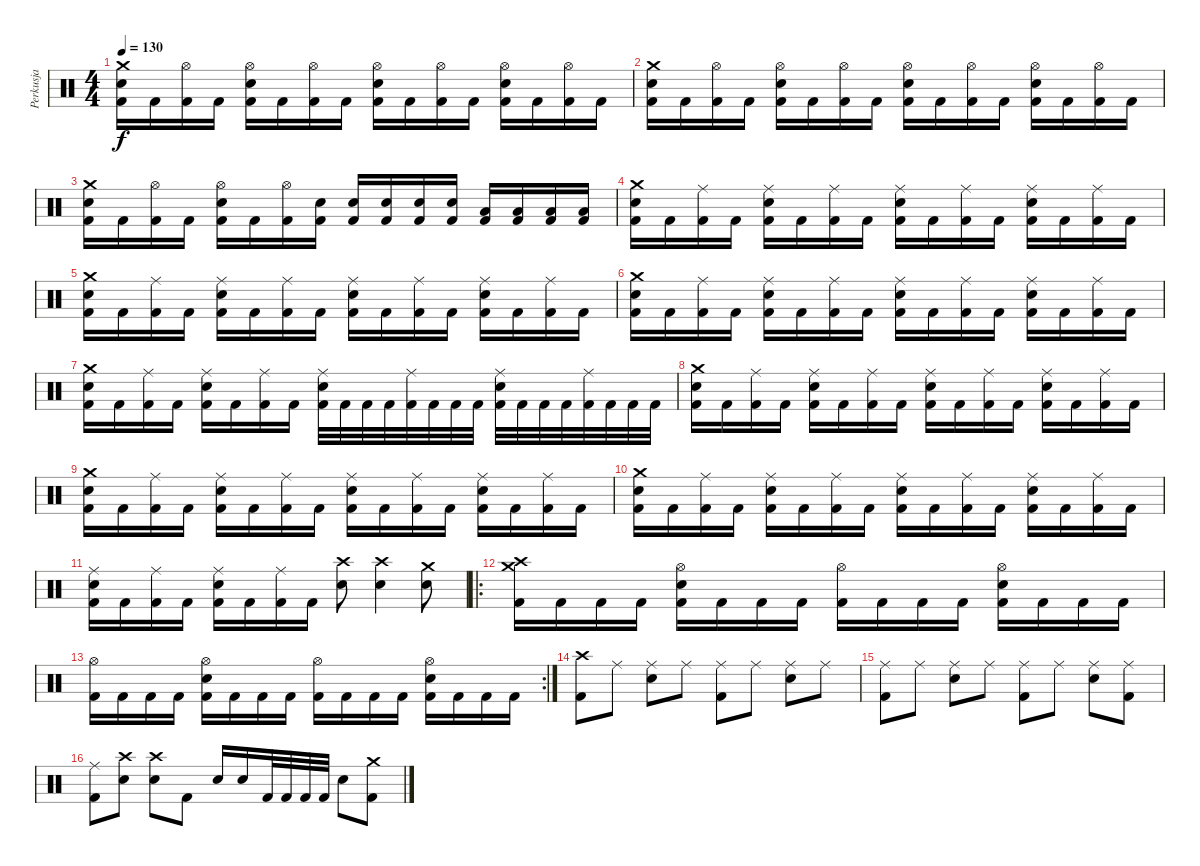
\track ("Perkusja" "Perkusja") {instrument percussion}
\staff {score}
\articulation defaults
\ts (4 4)
\tempo 130
\clef neutral
\ks c
("Kick (hit) 2" "Snare (hit) 2" "Crash medium (hit)").16{dy f} "Kick (hit) 2".16 ("Kick (hit) 2" "Hi-Hat (open)").16 "Kick (hit) 2".16 ("Kick (hit) 2" "Snare (hit) 2" "Hi-Hat (open)").16 "Kick (hit) 2".16 ("Kick (hit) 2" "Hi-Hat (open)").16 "Kick (hit) 2".16 ("Kick (hit) 2" "Snare (hit) 2" "Hi-Hat (open)").16 "Kick (hit) 2".16 ("Kick (hit) 2" "Hi-Hat (open)").16 "Kick (hit) 2".16 ("Kick (hit) 2" "Snare (hit) 2" "Hi-Hat (open)").16 "Kick (hit) 2".16 ("Kick (hit) 2" "Hi-Hat (open)").16 "Kick (hit) 2".16 |
("Kick (hit) 2" "Snare (hit) 2" "Crash medium (hit)").16 "Kick (hit) 2".16 ("Kick (hit) 2" "Hi-Hat (open)").16 "Kick (hit) 2".16 ("Kick (hit) 2" "Snare (hit) 2" "Hi-Hat (open)").16 "Kick (hit) 2".16 ("Kick (hit) 2" "Hi-Hat (open)").16 "Kick (hit) 2".16 ("Kick (hit) 2" "Snare (hit) 2" "Hi-Hat (open)").16 "Kick (hit) 2".16 ("Kick (hit) 2" "Hi-Hat (open)").16 "Kick (hit) 2".16 ("Kick (hit) 2" "Snare (hit) 2" "Hi-Hat (open)").16 "Kick (hit) 2".16 ("Kick (hit) 2" "Hi-Hat (open)").16 "Kick (hit) 2".16 |
("Kick (hit) 2" "Snare (hit) 2" "Crash medium (hit)").16 "Kick (hit) 2".16 ("Kick (hit) 2" "Hi-Hat (open)").16 "Kick (hit) 2".16 ("Kick (hit) 2" "Snare (hit) 2" "Hi-Hat (open)").16 "Kick (hit) 2".16 ("Kick (hit) 2" "Hi-Hat (open)").16 ("Kick (hit) 2" "Snare (hit) 2").16 ("Kick (hit) 2" "Snare (hit) 2").16 ("Kick (hit) 2" "Snare (hit) 2").16 ("Kick (hit) 2" "Snare (hit) 2").16 ("Kick (hit) 2" "Snare (hit) 2").16 ("Kick (hit) 2" "Low Tom (hit)").16 ("Kick (hit) 2" "Low Tom (hit)").16 ("Kick (hit) 2" "Low Tom (hit)").16 ("Kick (hit) 2" "Low Tom (hit)").16 |
("Kick (hit) 2" "Snare (hit) 2" "Crash medium (hit)").16 "Kick (hit) 2".16 ("Kick (hit) 2" "Ride (middle)").16 "Kick (hit) 2".16 ("Kick (hit) 2" "Snare (hit) 2" "Ride (middle)").16 "Kick (hit) 2".16 ("Kick (hit) 2" "Ride (middle)").16 "Kick (hit) 2".16 ("Kick (hit) 2" "Snare (hit) 2" "Ride (middle)").16 "Kick (hit) 2".16 ("Kick (hit) 2" "Ride (middle)").16 "Kick (hit) 2".16 ("Kick (hit) 2" "Snare (hit) 2" "Ride (middle)").16 "Kick (hit) 2".16 ("Kick (hit) 2" "Ride (middle)").16 "Kick (hit) 2".16 |
("Kick (hit) 2" "Snare (hit) 2" "Crash medium (hit)").16 "Kick (hit) 2".16 ("Kick (hit) 2" "Ride (middle)").16 "Kick (hit) 2".16 ("Kick (hit) 2" "Snare (hit) 2" "Ride (middle)").16 "Kick (hit) 2".16 ("Kick (hit) 2" "Ride (middle)").16 "Kick (hit) 2".16 ("Kick (hit) 2" "Snare (hit) 2" "Ride (middle)").16 "Kick (hit) 2".16 ("Kick (hit) 2" "Ride (middle)").16 "Kick (hit) 2".16 ("Kick (hit) 2" "Snare (hit) 2" "Ride (middle)").16 "Kick (hit) 2".16 ("Kick (hit) 2" "Ride (middle)").16 "Kick (hit) 2".16 |
("Kick (hit) 2" "Snare (hit) 2" "Crash medium (hit)").16 "Kick (hit) 2".16 ("Kick (hit) 2" "Ride (middle)").16 "Kick (hit) 2".16 ("Kick (hit) 2" "Snare (hit) 2" "Ride (middle)").16 "Kick (hit) 2".16 ("Kick (hit) 2" "Ride (middle)").16 "Kick (hit) 2".16 ("Kick (hit) 2" "Snare (hit) 2" "Ride (middle)").16 "Kick (hit) 2".16 ("Kick (hit) 2" "Ride (middle)").16 "Kick (hit) 2".16 ("Kick (hit) 2" "Snare (hit) 2" "Ride (middle)").16 "Kick (hit) 2".16 ("Kick (hit) 2" "Ride (middle)").16 "Kick (hit) 2".16 |
("Kick (hit) 2" "Snare (hit) 2" "Crash medium (hit)").16 "Kick (hit) 2".16 ("Kick (hit) 2" "Ride (middle)").16 "Kick (hit) 2".16 ("Kick (hit) 2" "Snare (hit) 2" "Ride (middle)").16 "Kick (hit) 2".16 ("Kick (hit) 2" "Ride (middle)").16 "Kick (hit) 2".16 ("Kick (hit) 2" "Snare (hit) 2" "Ride (middle)").32 "Kick (hit) 2".32 "Kick (hit) 2".32 "Kick (hit) 2".32 ("Kick (hit) 2" "Ride (middle)").32 "Kick (hit) 2".32 "Kick (hit) 2".32 "Kick (hit) 2".32 ("Kick (hit) 2" "Snare (hit) 2" "Ride (middle)").32 "Kick (hit) 2".32 "Kick (hit) 2".32 "Kick (hit) 2".32 ("Kick (hit) 2" "Ride (middle)").32 "Kick (hit) 2".32 "Kick (hit) 2".32 "Kick (hit) 2".32 |
("Kick (hit) 2" "Snare (hit) 2" "Crash medium (hit)").16 "Kick (hit) 2".16 ("Kick (hit) 2" "Ride (middle)").16 "Kick (hit) 2".16 ("Kick (hit) 2" "Snare (hit) 2" "Ride (middle)").16 "Kick (hit) 2".16 ("Kick (hit) 2" "Ride (middle)").16 "Kick (hit) 2".16 ("Kick (hit) 2" "Snare (hit) 2" "Ride (middle)").16 "Kick (hit) 2".16 ("Kick (hit) 2" "Ride (middle)").16 "Kick (hit) 2".16 ("Kick (hit) 2" "Snare (hit) 2" "Ride (middle)").16 "Kick (hit) 2".16 ("Kick (hit) 2" "Ride (middle)").16 "Kick (hit) 2".16 |
("Kick (hit) 2" "Snare (hit) 2" "Crash medium (hit)").16 "Kick (hit) 2".16 ("Kick (hit) 2" "Ride (middle)").16 "Kick (hit) 2".16 ("Kick (hit) 2" "Snare (hit) 2" "Ride (middle)").16 "Kick (hit) 2".16 ("Kick (hit) 2" "Ride (middle)").16 "Kick (hit) 2".16 ("Kick (hit) 2" "Snare (hit) 2" "Ride (middle)").16 "Kick (hit) 2".16 ("Kick (hit) 2" "Ride (middle)").16 "Kick (hit) 2".16 ("Kick (hit) 2" "Snare (hit) 2" "Ride (middle)").16 "Kick (hit) 2".16 ("Kick (hit) 2" "Ride (middle)").16 "Kick (hit) 2".16 |
("Kick (hit) 2" "Snare (hit) 2" "Crash medium (hit)").16 "Kick (hit) 2".16 ("Kick (hit) 2" "Ride (middle)").16 "Kick (hit) 2".16 ("Kick (hit) 2" "Snare (hit) 2" "Ride (middle)").16 "Kick (hit) 2".16 ("Kick (hit) 2" "Ride (middle)").16 "Kick (hit) 2".16 ("Kick (hit) 2" "Snare (hit) 2" "Ride (middle)").16 "Kick (hit) 2".16 ("Kick (hit) 2" "Ride (middle)").16 "Kick (hit) 2".16 ("Kick (hit) 2" "Snare (hit) 2" "Ride (middle)").16 "Kick (hit) 2".16 ("Kick (hit) 2" "Ride (middle)").16 "Kick (hit) 2".16 |
("Kick (hit) 2" "Snare (hit) 2" "Ride (middle)").16 "Kick (hit) 2".16 ("Kick (hit) 2" "Ride (middle)").16 "Kick (hit) 2".16 ("Kick (hit) 2" "Snare (hit) 2" "Ride (middle)").16 "Kick (hit) 2".16 ("Kick (hit) 2" "Ride (middle)").16 "Kick (hit) 2".16 ("Crash high (hit)" "Snare (hit) 2").8 ("Crash high (hit)" "Snare (hit) 2").4 ("Crash medium (hit)" "Snare (hit) 2").8 |
\ro
("Kick (hit) 2" "Crash high (hit)" "Crash medium (hit)").16 "Kick (hit) 2".16 "Kick (hit) 2".16 "Kick (hit) 2".16 ("Kick (hit) 2" "Snare (hit) 2" "Hi-Hat (open)").16 "Kick (hit) 2".16 "Kick (hit) 2".16 "Kick (hit) 2".16 ("Kick (hit) 2" "Hi-Hat (open)").16 "Kick (hit) 2".16 "Kick (hit) 2".16 "Kick (hit) 2".16 ("Kick (hit) 2" "Snare (hit) 2" "Hi-Hat (open)").16 "Kick (hit) 2".16 "Kick (hit) 2".16 "Kick (hit) 2".16 |
\rc 2
("Kick (hit) 2" "Hi-Hat (open)").16 "Kick (hit) 2".16 "Kick (hit) 2".16 "Kick (hit) 2".16 ("Kick (hit) 2" "Snare (hit) 2" "Hi-Hat (open)").16 "Kick (hit) 2".16 "Kick (hit) 2".16 "Kick (hit) 2".16 ("Kick (hit) 2" "Hi-Hat (open)").16 "Kick (hit) 2".16 "Kick (hit) 2".16 "Kick (hit) 2".16 ("Kick (hit) 2" "Snare (hit) 2" "Hi-Hat (open)").16 "Kick (hit) 2".16 "Kick (hit) 2".16 "Kick (hit) 2".16 |
("Kick (hit) 2" "Crash high (hit)").8 "Ride (middle)".8 ("Snare (hit) 2" "Ride (middle)").8 "Ride (middle)".8 ("Kick (hit) 2" "Ride (middle)").8 "Ride (middle)".8 ("Snare (hit) 2" "Ride (middle)").8 "Ride (middle)".8 |
("Kick (hit) 2" "Ride (middle)").8 "Ride (middle)".8 ("Snare (hit) 2" "Ride (middle)").8 "Ride (middle)".8 ("Kick (hit) 2" "Ride (middle)").8 "Ride (middle)".8 ("Snare (hit) 2" "Ride (middle)").8 ("Kick (hit) 2" "Ride (middle)").8 |
("Ride (middle)" "Kick (hit) 2").8 ("Snare (hit) 2" "Crash high (hit)").8 ("Snare (hit) 2" "Crash high (hit)").8 "Kick (hit) 2".8 "Snare (hit) 2".16 "Snare (hit) 2".16 "Kick (hit) 2".32 "Kick (hit) 2".32 "Kick (hit) 2".32 "Kick (hit) 2".32 "Snare (hit) 2".8 ("Crash medium (hit)" "Kick (hit) 2").8
